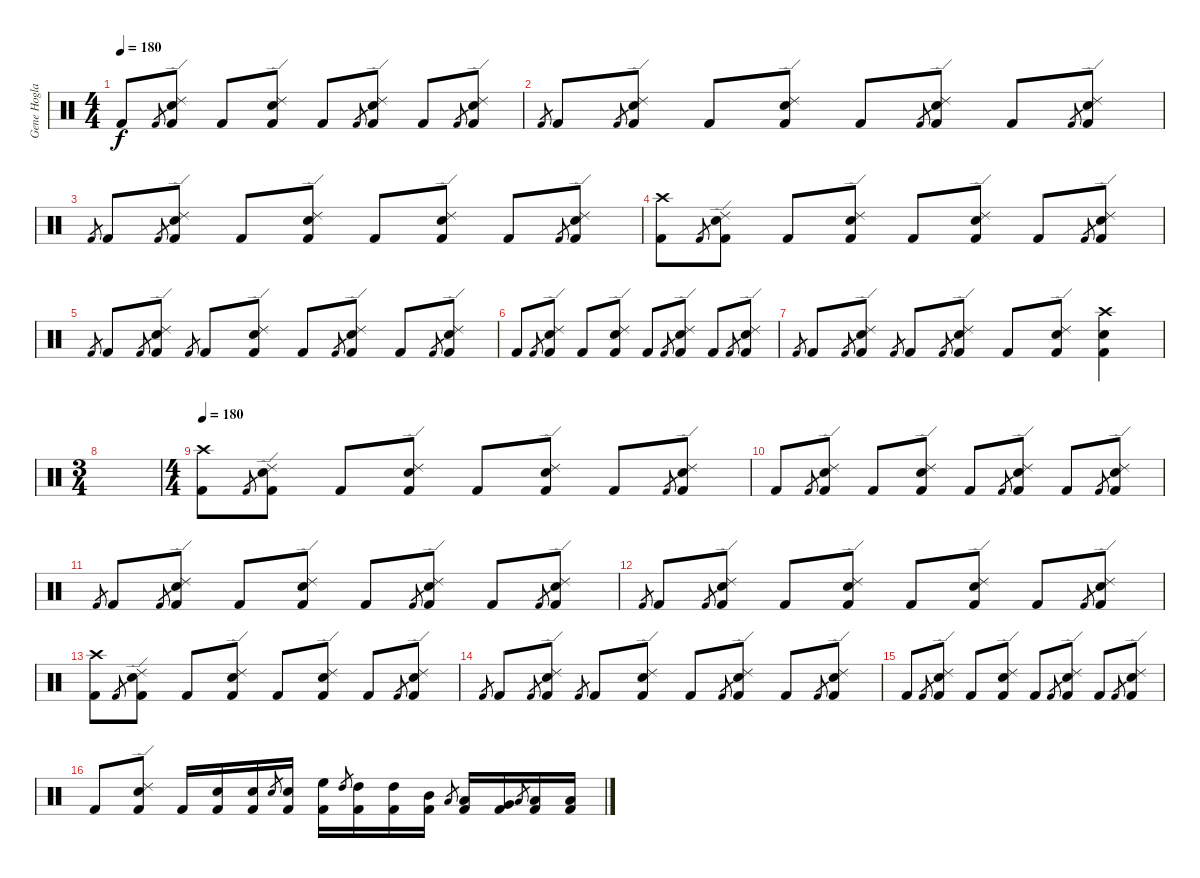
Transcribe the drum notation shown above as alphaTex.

\track ("Gene Hoglan" "Gene Hogla") {instrument percussion}
\staff {score}
\articulation defaults
\ts (4 4)
\tempo 180
\clef neutral
\ks c "Kick (hit) 2".8{dy f} "Kick (hit) 2".8{gr}
("Kick (hit) 2" "Electric Snare (hit)" "Ride (edge) 2").8 "Kick (hit) 2".8 ("Kick (hit) 2" "Electric Snare (hit)" "Ride (edge) 2").8 "Kick (hit) 2".8 "Kick (hit) 2".8{gr} ("Kick (hit) 2" "Electric Snare (hit)" "Ride (edge) 2").8 "Kick (hit) 2".8 "Kick (hit) 2".8{gr} ("Kick (hit) 2" "Electric Snare (hit)" "Ride (edge) 2").8 |
"Kick (hit) 2".8{gr} "Kick (hit) 2".8 "Kick (hit) 2".8{gr} ("Kick (hit) 2" "Electric Snare (hit)" "Ride (edge) 2").8 "Kick (hit) 2".8 ("Kick (hit) 2" "Electric Snare (hit)" "Ride (edge) 2").8 "Kick (hit) 2".8 "Kick (hit) 2".8{gr} ("Kick (hit) 2" "Electric Snare (hit)" "Ride (edge) 2").8 "Kick (hit) 2".8 "Kick (hit) 2".8{gr} ("Kick (hit) 2" "Electric Snare (hit)" "Ride (edge) 2").8 |
"Kick (hit) 2".8{gr} "Kick (hit) 2".8 "Kick (hit) 2".8{gr} ("Kick (hit) 2" "Electric Snare (hit)" "Ride (edge) 2").8 "Kick (hit) 2".8 ("Kick (hit) 2" "Electric Snare (hit)" "Ride (edge) 2").8 "Kick (hit) 2".8 ("Kick (hit) 2" "Electric Snare (hit)" "Ride (edge) 2").8 "Kick (hit) 2".8 "Kick (hit) 2".8{gr} ("Kick (hit) 2" "Electric Snare (hit)" "Ride (edge) 2").8 |
("Kick (hit) 2" "Crash high (hit)").8 "Kick (hit) 2".8{gr} ("Kick (hit) 2" "Electric Snare (hit)" "Ride (edge) 2").8 "Kick (hit) 2".8 ("Kick (hit) 2" "Electric Snare (hit)" "Ride (edge) 2").8 "Kick (hit) 2".8 ("Kick (hit) 2" "Electric Snare (hit)" "Ride (edge) 2").8 "Kick (hit) 2".8 "Kick (hit) 2".8{gr} ("Kick (hit) 2" "Electric Snare (hit)" "Ride (edge) 2").8 |
"Kick (hit) 2".8{gr} "Kick (hit) 2".8 "Kick (hit) 2".8{gr} ("Kick (hit) 2" "Electric Snare (hit)" "Ride (edge) 2").8 "Kick (hit) 2".8{gr} "Kick (hit) 2".8 ("Kick (hit) 2" "Electric Snare (hit)" "Ride (edge) 2").8 "Kick (hit) 2".8 "Kick (hit) 2".8{gr} ("Kick (hit) 2" "Electric Snare (hit)" "Ride (edge) 2").8 "Kick (hit) 2".8 "Kick (hit) 2".8{gr} ("Kick (hit) 2" "Electric Snare (hit)" "Ride (edge) 2").8 |
"Kick (hit) 2".8 "Kick (hit) 2".8{gr} ("Kick (hit) 2" "Electric Snare (hit)" "Ride (edge) 2").8 "Kick (hit) 2".8 ("Kick (hit) 2" "Electric Snare (hit)" "Ride (edge) 2").8 "Kick (hit) 2".8 "Kick (hit) 2".8{gr} ("Kick (hit) 2" "Electric Snare (hit)" "Ride (edge) 2").8 "Kick (hit) 2".8 "Kick (hit) 2".8{gr} ("Kick (hit) 2" "Electric Snare (hit)" "Ride (edge) 2").8 |
"Kick (hit) 2".8{gr} "Kick (hit) 2".8 "Kick (hit) 2".8{gr} ("Kick (hit) 2" "Electric Snare (hit)" "Ride (edge) 2").8 "Kick (hit) 2".8{gr} "Kick (hit) 2".8 "Kick (hit) 2".8{gr} ("Kick (hit) 2" "Electric Snare (hit)" "Ride (edge) 2").8 "Kick (hit) 2".8 ("Kick (hit) 2" "Electric Snare (hit)" "Ride (edge) 2").8 ("Kick (hit) 2" "Electric Snare (hit)" "Crash high (hit)").4 |
\ts (3 4)
|
\ts (4 4)
\tempo 180
("Kick (hit) 2" "Crash high (hit)").8 "Kick (hit) 2".8{gr} ("Kick (hit) 2" "Electric Snare (hit)" "Ride (edge) 2").8 "Kick (hit) 2".8 ("Kick (hit) 2" "Electric Snare (hit)" "Ride (edge) 2").8 "Kick (hit) 2".8 ("Kick (hit) 2" "Electric Snare (hit)" "Ride (edge) 2").8 "Kick (hit) 2".8 "Kick (hit) 2".8{gr} ("Kick (hit) 2" "Electric Snare (hit)" "Ride (edge) 2").8 |
"Kick (hit) 2".8 "Kick (hit) 2".8{gr} ("Kick (hit) 2" "Electric Snare (hit)" "Ride (edge) 2").8 "Kick (hit) 2".8 ("Kick (hit) 2" "Electric Snare (hit)" "Ride (edge) 2").8 "Kick (hit) 2".8 "Kick (hit) 2".8{gr} ("Kick (hit) 2" "Electric Snare (hit)" "Ride (edge) 2").8 "Kick (hit) 2".8 "Kick (hit) 2".8{gr} ("Kick (hit) 2" "Electric Snare (hit)" "Ride (edge) 2").8 |
"Kick (hit) 2".8{gr} "Kick (hit) 2".8 "Kick (hit) 2".8{gr} ("Kick (hit) 2" "Electric Snare (hit)" "Ride (edge) 2").8 "Kick (hit) 2".8 ("Kick (hit) 2" "Electric Snare (hit)" "Ride (edge) 2").8 "Kick (hit) 2".8 "Kick (hit) 2".8{gr} ("Kick (hit) 2" "Electric Snare (hit)" "Ride (edge) 2").8 "Kick (hit) 2".8 "Kick (hit) 2".8{gr} ("Kick (hit) 2" "Electric Snare (hit)" "Ride (edge) 2").8 |
"Kick (hit) 2".8{gr} "Kick (hit) 2".8 "Kick (hit) 2".8{gr} ("Kick (hit) 2" "Electric Snare (hit)" "Ride (edge) 2").8 "Kick (hit) 2".8 ("Kick (hit) 2" "Electric Snare (hit)" "Ride (edge) 2").8 "Kick (hit) 2".8 ("Kick (hit) 2" "Electric Snare (hit)" "Ride (edge) 2").8 "Kick (hit) 2".8 "Kick (hit) 2".8{gr} ("Kick (hit) 2" "Electric Snare (hit)" "Ride (edge) 2").8 |
("Kick (hit) 2" "Crash high (hit)").8 "Kick (hit) 2".8{gr} ("Kick (hit) 2" "Electric Snare (hit)" "Ride (edge) 2").8 "Kick (hit) 2".8 ("Kick (hit) 2" "Electric Snare (hit)" "Ride (edge) 2").8 "Kick (hit) 2".8 ("Kick (hit) 2" "Electric Snare (hit)" "Ride (edge) 2").8 "Kick (hit) 2".8 "Kick (hit) 2".8{gr} ("Kick (hit) 2" "Electric Snare (hit)" "Ride (edge) 2").8 |
"Kick (hit) 2".8{gr} "Kick (hit) 2".8 "Kick (hit) 2".8{gr} ("Kick (hit) 2" "Electric Snare (hit)" "Ride (edge) 2").8 "Kick (hit) 2".8{gr} "Kick (hit) 2".8 ("Kick (hit) 2" "Electric Snare (hit)" "Ride (edge) 2").8 "Kick (hit) 2".8 "Kick (hit) 2".8{gr} ("Kick (hit) 2" "Electric Snare (hit)" "Ride (edge) 2").8 "Kick (hit) 2".8 "Kick (hit) 2".8{gr} ("Kick (hit) 2" "Electric Snare (hit)" "Ride (edge) 2").8 |
"Kick (hit) 2".8 "Kick (hit) 2".8{gr} ("Kick (hit) 2" "Electric Snare (hit)" "Ride (edge) 2").8 "Kick (hit) 2".8 ("Kick (hit) 2" "Electric Snare (hit)" "Ride (edge) 2").8 "Kick (hit) 2".8 "Kick (hit) 2".8{gr} ("Kick (hit) 2" "Electric Snare (hit)" "Ride (edge) 2").8 "Kick (hit) 2".8 "Kick (hit) 2".8{gr} ("Kick (hit) 2" "Electric Snare (hit)" "Ride (edge) 2").8 |
"Kick (hit) 2".8 ("Kick (hit) 2" "Electric Snare (hit)" "Ride (edge) 2").8 "Kick (hit) 2".16 ("Kick (hit) 2" "Electric Snare (hit)").16 ("Kick (hit) 2" "Electric Snare (hit)").16 "Electric Snare (hit)".8{gr} ("Kick (hit) 2" "Electric Snare (hit)").16 ("Kick (hit) 2" "High Floor Tom (hit)").16 "High Tom (hit)".8{gr} ("Kick (hit) 2" "High Tom (hit)").16 ("Kick (hit) 2" "High Tom (hit)").16 ("Kick (hit) 2" "Mid Tom (hit)").16 "Low Tom (hit)".8{gr} ("Kick (hit) 2" "Low Tom (hit)").16 ("Kick (hit) 2" "Very Low Tom (hit)").16 "Low Floor Tom (hit)".8{gr} ("Kick (hit) 2" "Low Floor Tom (hit)").16 ("Kick (hit) 2" "Low Floor Tom (hit)").16
